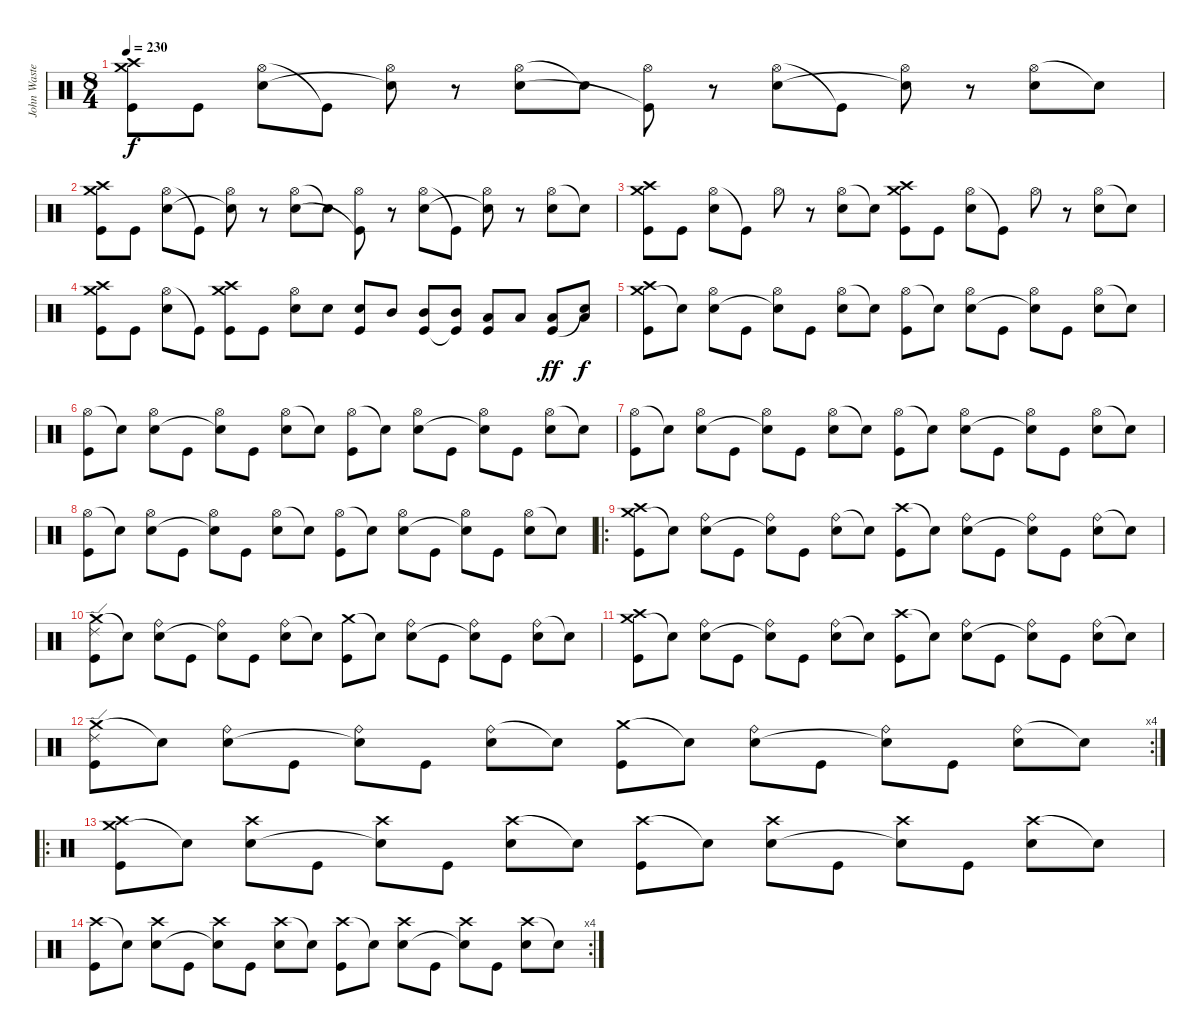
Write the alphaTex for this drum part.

\track ("John Wasted" "John Waste") {instrument percussion}
\staff {score}
\articulation defaults
\ts (8 4)
\tempo 230
\clef neutral
\ks c
("Crash medium (hit)" "Crash high (hit)" "Kick (hit)").8{dy f} "Kick (hit)".8 ("Hi-Hat (open)" "Snare (hit) 2").8 "Kick (hit)"{t}.8 ("Hi-Hat (open)" "Snare (hit)"{t}).8 r.8 ("Hi-Hat (open)" "Snare (hit) 2").8 "Snare (hit)"{t}.8 ("Hi-Hat (open)" "Kick (hit)"{t}).8 r.8 ("Hi-Hat (open)" "Snare (hit) 2").8 "Kick (hit)"{t}.8 ("Hi-Hat (open)" "Snare (hit)"{t}).8 r.8 ("Hi-Hat (open)" "Snare (hit) 2").8 "Snare (hit)"{t}.8 |
("Crash medium (hit)" "Crash high (hit)" "Kick (hit)").8 "Kick (hit)".8 ("Hi-Hat (open)" "Snare (hit) 2").8 "Kick (hit)"{t}.8 ("Hi-Hat (open)" "Snare (hit)"{t}).8 r.8 ("Hi-Hat (open)" "Snare (hit) 2").8 "Snare (hit)"{t}.8 ("Hi-Hat (open)" "Kick (hit)"{t}).8 r.8 ("Hi-Hat (open)" "Snare (hit) 2").8 "Kick (hit)"{t}.8 ("Hi-Hat (open)" "Snare (hit)"{t}).8 r.8 ("Hi-Hat (open)" "Snare (hit) 2").8 "Snare (hit)"{t}.8 |
("Crash medium (hit)" "Crash high (hit)" "Kick (hit)").8 "Kick (hit)".8 ("Hi-Hat (open)" "Snare (hit) 2").8 "Kick (hit)"{t}.8 "Hi-Hat (open)".8 r.8 ("Hi-Hat (open)" "Snare (hit) 2").8 "Snare (hit)"{t}.8 ("Crash medium (hit)" "Crash high (hit)" "Kick (hit)").8 "Kick (hit)".8 ("Hi-Hat (open)" "Snare (hit) 2").8 "Kick (hit)"{t}.8 "Hi-Hat (open)".8 r.8 ("Hi-Hat (open)" "Snare (hit) 2").8 "Snare (hit)"{t}.8 |
("Crash medium (hit)" "Crash high (hit)" "Kick (hit)").8 "Kick (hit)".8 ("Hi-Hat (open)" "Snare (hit) 2").8 "Kick (hit)"{t}.8 ("Crash medium (hit)" "Crash high (hit)" "Kick (hit)").8 "Kick (hit)".8 ("Hi-Hat (open)" "Snare (hit) 2").8 "Snare (hit) 2".8 ("Snare (hit) 2" "Kick (hit)").8 "Mid Tom (hit)".8 ("Mid Tom (hit)" "Kick (hit)").8 ("Mid Tom (hit)" "Kick (hit)"{t}).8 ("Low Tom (hit)" "Kick (hit)").8 "Low Tom (hit)".8 ("Low Tom (hit)" "Kick (hit)").8{dy ff} ("Low Tom (hit)" "Snare (hit)"{t}).8{dy f} |
("Crash medium (hit)" "Crash high (hit)" "Kick (hit)").8 "Snare (hit)"{t}.8 ("Hi-Hat (open)" "Snare (hit) 2").8 "Kick (hit)".8 ("Hi-Hat (open)" "Snare (hit)"{t}).8 "Kick (hit)".8 ("Hi-Hat (open)" "Snare (hit) 2").8 "Snare (hit)"{t}.8 ("Hi-Hat (open)" "Kick (hit)").8 "Snare (hit)"{t}.8 ("Hi-Hat (open)" "Snare (hit) 2").8 "Kick (hit)".8 ("Hi-Hat (open)" "Snare (hit)"{t}).8 "Kick (hit)".8 ("Hi-Hat (open)" "Snare (hit) 2").8 "Snare (hit)"{t}.8 |
("Hi-Hat (open)" "Kick (hit)").8 "Snare (hit)"{t}.8 ("Hi-Hat (open)" "Snare (hit) 2").8 "Kick (hit)".8 ("Hi-Hat (open)" "Snare (hit)"{t}).8 "Kick (hit)".8 ("Hi-Hat (open)" "Snare (hit) 2").8 "Snare (hit)"{t}.8 ("Hi-Hat (open)" "Kick (hit)").8 "Snare (hit)"{t}.8 ("Hi-Hat (open)" "Snare (hit) 2").8 "Kick (hit)".8 ("Hi-Hat (open)" "Snare (hit)"{t}).8 "Kick (hit)".8 ("Hi-Hat (open)" "Snare (hit) 2").8 "Snare (hit)"{t}.8 |
("Hi-Hat (open)" "Kick (hit)").8 "Snare (hit)"{t}.8 ("Hi-Hat (open)" "Snare (hit) 2").8 "Kick (hit)".8 ("Hi-Hat (open)" "Snare (hit)"{t}).8 "Kick (hit)".8 ("Hi-Hat (open)" "Snare (hit) 2").8 "Snare (hit)"{t}.8 ("Hi-Hat (open)" "Kick (hit)").8 "Snare (hit)"{t}.8 ("Hi-Hat (open)" "Snare (hit) 2").8 "Kick (hit)".8 ("Hi-Hat (open)" "Snare (hit)"{t}).8 "Kick (hit)".8 ("Hi-Hat (open)" "Snare (hit) 2").8 "Snare (hit)"{t}.8 |
("Hi-Hat (open)" "Kick (hit)").8 "Snare (hit)"{t}.8 ("Hi-Hat (open)" "Snare (hit) 2").8 "Kick (hit)".8 ("Hi-Hat (open)" "Snare (hit)"{t}).8 "Kick (hit)".8 ("Hi-Hat (open)" "Snare (hit) 2").8 "Snare (hit)"{t}.8 ("Hi-Hat (open)" "Kick (hit)").8 "Snare (hit)"{t}.8 ("Hi-Hat (open)" "Snare (hit) 2").8 "Kick (hit)".8 ("Hi-Hat (open)" "Snare (hit)"{t}).8 "Kick (hit)".8 ("Hi-Hat (open)" "Snare (hit) 2").8 "Snare (hit)"{t}.8 |
\ro
("Crash medium (hit)" "Crash high (hit)" "Kick (hit)").8 "Snare (hit)"{t}.8 ("Ride (bell)" "Snare (hit) 2").8 "Kick (hit)".8 ("Ride (bell)" "Snare (hit)"{t}).8 "Kick (hit)".8 ("Ride (bell)" "Snare (hit) 2").8 "Snare (hit)"{t}.8 ("Crash high (hit)" "Kick (hit)").8 "Snare (hit)"{t}.8 ("Ride (bell)" "Snare (hit) 2").8 "Kick (hit)".8 ("Ride (bell)" "Snare (hit)"{t}).8 "Kick (hit)".8 ("Ride (bell)" "Snare (hit) 2").8 "Snare (hit)"{t}.8 |
("Crash medium (hit)" "Ride (edge) 2" "Kick (hit)").8 "Snare (hit)"{t}.8 ("Ride (bell)" "Snare (hit) 2").8 "Kick (hit)".8 ("Ride (bell)" "Snare (hit)"{t}).8 "Kick (hit)".8 ("Ride (bell)" "Snare (hit) 2").8 "Snare (hit)"{t}.8 ("Crash medium (hit)" "Kick (hit)").8 "Snare (hit)"{t}.8 ("Ride (bell)" "Snare (hit) 2").8 "Kick (hit)".8 ("Ride (bell)" "Snare (hit)"{t}).8 "Kick (hit)".8 ("Ride (bell)" "Snare (hit) 2").8 "Snare (hit)"{t}.8 |
("Crash medium (hit)" "Crash high (hit)" "Kick (hit)").8 "Snare (hit)"{t}.8 ("Ride (bell)" "Snare (hit) 2").8 "Kick (hit)".8 ("Ride (bell)" "Snare (hit)"{t}).8 "Kick (hit)".8 ("Ride (bell)" "Snare (hit) 2").8 "Snare (hit)"{t}.8 ("Crash high (hit)" "Kick (hit)").8 "Snare (hit)"{t}.8 ("Ride (bell)" "Snare (hit) 2").8 "Kick (hit)".8 ("Ride (bell)" "Snare (hit)"{t}).8 "Kick (hit)".8 ("Ride (bell)" "Snare (hit) 2").8 "Snare (hit)"{t}.8 |
\rc 4
("Crash medium (hit)" "Ride (edge) 2" "Kick (hit)").8 "Snare (hit)"{t}.8 ("Ride (bell)" "Snare (hit) 2").8 "Kick (hit)".8 ("Ride (bell)" "Snare (hit)"{t}).8 "Kick (hit)".8 ("Ride (bell)" "Snare (hit) 2").8 "Snare (hit)"{t}.8 ("Crash medium (hit)" "Kick (hit)").8 "Snare (hit)"{t}.8 ("Ride (bell)" "Snare (hit) 2").8 "Kick (hit)".8 ("Ride (bell)" "Snare (hit)"{t}).8 "Kick (hit)".8 ("Ride (bell)" "Snare (hit) 2").8 "Snare (hit)"{t}.8 |
\ro
("Crash medium (hit)" "Crash high (hit)" "Kick (hit)").8 "Snare (hit)"{t}.8 ("Crash high (hit)" "Snare (hit) 2").8 "Kick (hit)".8 ("Crash high (hit)" "Snare (hit)"{t}).8 "Kick (hit)".8 ("Crash high (hit)" "Snare (hit) 2").8 "Snare (hit)"{t}.8 ("Crash high (hit)" "Kick (hit)").8 "Snare (hit)"{t}.8 ("Crash high (hit)" "Snare (hit) 2").8 "Kick (hit)".8 ("Crash high (hit)" "Snare (hit)"{t}).8 "Kick (hit)".8 ("Crash high (hit)" "Snare (hit) 2").8 "Snare (hit)"{t}.8 |
\rc 4
("Crash high (hit)" "Kick (hit)").8 "Snare (hit)"{t}.8 ("Crash high (hit)" "Snare (hit) 2").8 "Kick (hit)".8 ("Crash high (hit)" "Snare (hit)"{t}).8 "Kick (hit)".8 ("Crash high (hit)" "Snare (hit) 2").8 "Snare (hit)"{t}.8 ("Crash high (hit)" "Kick (hit)").8 "Snare (hit)"{t}.8 ("Crash high (hit)" "Snare (hit) 2").8 "Kick (hit)".8 ("Crash high (hit)" "Snare (hit)"{t}).8 "Kick (hit)".8 ("Crash high (hit)" "Snare (hit) 2").8 "Snare (hit)"{t}.8
